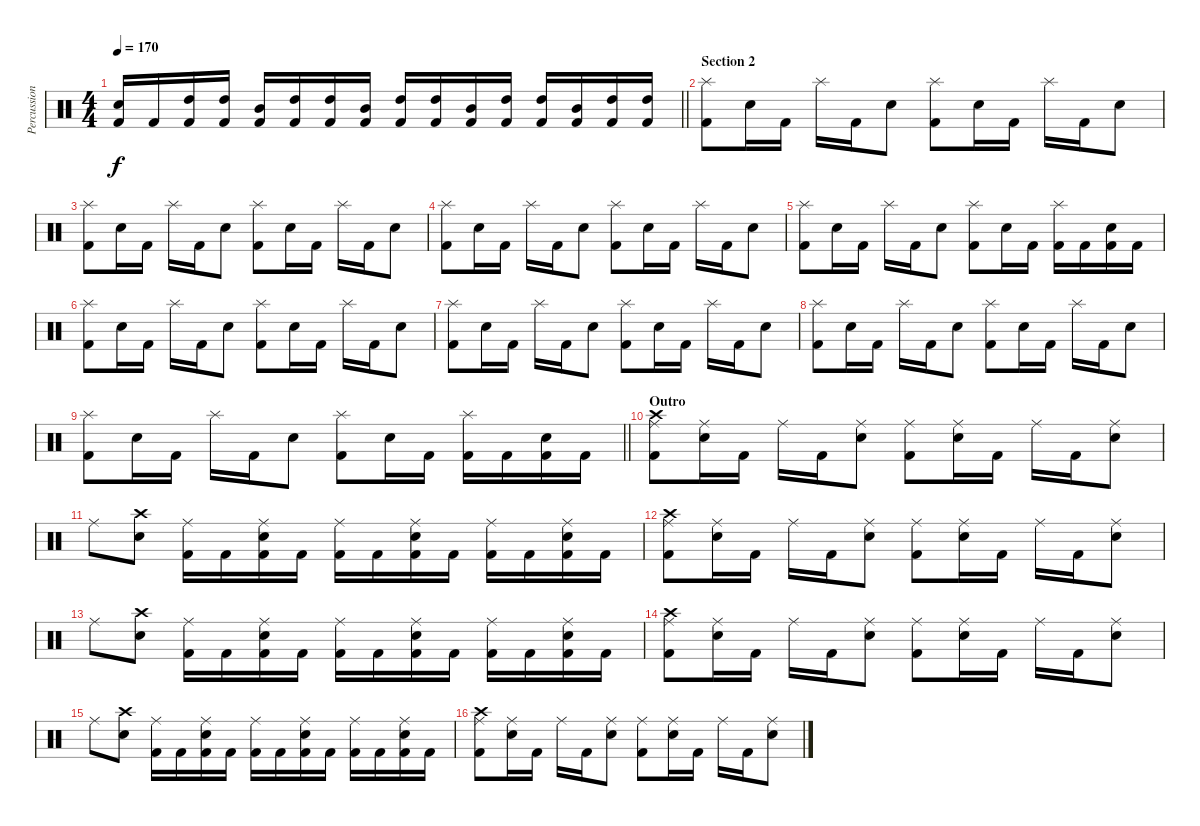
\track ("Percussion" "Percussion") {instrument percussion}
\staff {score}
\articulation defaults
\ts (4 4)
\tempo 170
\clef neutral
\barLineRight lightlight
\ks c
("Snare (hit) 2" "Kick (hit) 2").16{dy f} "Kick (hit) 2".16 ("High Tom (hit)" "Kick (hit) 2").16 ("High Tom (hit)" "Kick (hit) 2").16 ("Mid Tom (hit)" "Kick (hit) 2").16 ("High Tom (hit)" "Kick (hit) 2").16 ("High Tom (hit)" "Kick (hit) 2").16 ("Mid Tom (hit)" "Kick (hit) 2").16 ("High Tom (hit)" "Kick (hit) 2").16 ("High Tom (hit)" "Kick (hit) 2").16 ("Mid Tom (hit)" "Kick (hit) 2").16 ("High Tom (hit)" "Kick (hit) 2").16 ("High Tom (hit)" "Kick (hit) 2").16 ("Mid Tom (hit)" "Kick (hit) 2").16 ("High Tom (hit)" "Kick (hit) 2").16 ("High Tom (hit)" "Kick (hit) 2").16 |
\section ("" "Section 2")
("Splash (hit)" "Kick (hit) 2").8 "Snare (hit) 2".16 "Kick (hit) 2".16 "Splash (hit)".16 "Kick (hit) 2".16 "Snare (hit) 2".8 ("Splash (hit)" "Kick (hit) 2").8 "Snare (hit) 2".16 "Kick (hit) 2".16 "Splash (hit)".16 "Kick (hit) 2".16 "Snare (hit) 2".8 |
("Splash (hit)" "Kick (hit) 2").8 "Snare (hit) 2".16 "Kick (hit) 2".16 "Splash (hit)".16 "Kick (hit) 2".16 "Snare (hit) 2".8 ("Splash (hit)" "Kick (hit) 2").8 "Snare (hit) 2".16 "Kick (hit) 2".16 "Splash (hit)".16 "Kick (hit) 2".16 "Snare (hit) 2".8 |
("Splash (hit)" "Kick (hit) 2").8 "Snare (hit) 2".16 "Kick (hit) 2".16 "Splash (hit)".16 "Kick (hit) 2".16 "Snare (hit) 2".8 ("Splash (hit)" "Kick (hit) 2").8 "Snare (hit) 2".16 "Kick (hit) 2".16 "Splash (hit)".16 "Kick (hit) 2".16 "Snare (hit) 2".8 |
("Splash (hit)" "Kick (hit) 2").8 "Snare (hit) 2".16 "Kick (hit) 2".16 "Splash (hit)".16 "Kick (hit) 2".16 "Snare (hit) 2".8 ("Splash (hit)" "Kick (hit) 2").8 "Snare (hit) 2".16 "Kick (hit) 2".16 ("Splash (hit)" "Kick (hit) 2").16 "Kick (hit) 2".16 ("Snare (hit) 2" "Kick (hit) 2").16 "Kick (hit) 2".16 |
("Splash (hit)" "Kick (hit) 2").8 "Snare (hit) 2".16 "Kick (hit) 2".16 "Splash (hit)".16 "Kick (hit) 2".16 "Snare (hit) 2".8 ("Splash (hit)" "Kick (hit) 2").8 "Snare (hit) 2".16 "Kick (hit) 2".16 "Splash (hit)".16 "Kick (hit) 2".16 "Snare (hit) 2".8 |
("Splash (hit)" "Kick (hit) 2").8 "Snare (hit) 2".16 "Kick (hit) 2".16 "Splash (hit)".16 "Kick (hit) 2".16 "Snare (hit) 2".8 ("Splash (hit)" "Kick (hit) 2").8 "Snare (hit) 2".16 "Kick (hit) 2".16 "Splash (hit)".16 "Kick (hit) 2".16 "Snare (hit) 2".8 |
("Splash (hit)" "Kick (hit) 2").8 "Snare (hit) 2".16 "Kick (hit) 2".16 "Splash (hit)".16 "Kick (hit) 2".16 "Snare (hit) 2".8 ("Splash (hit)" "Kick (hit) 2").8 "Snare (hit) 2".16 "Kick (hit) 2".16 "Splash (hit)".16 "Kick (hit) 2".16 "Snare (hit) 2".8 |
\barLineRight lightlight
("Splash (hit)" "Kick (hit) 2").8 "Snare (hit) 2".16 "Kick (hit) 2".16 "Splash (hit)".16 "Kick (hit) 2".16 "Snare (hit) 2".8 ("Splash (hit)" "Kick (hit) 2").8 "Snare (hit) 2".16 "Kick (hit) 2".16 ("Splash (hit)" "Kick (hit) 2").16 "Kick (hit) 2".16 ("Snare (hit) 2" "Kick (hit) 2").16 "Kick (hit) 2".16 |
\section ("" "Outro")
("Ride (middle)" "Crash high (hit)" "Kick (hit) 2").8 ("Ride (middle)" "Snare (hit) 2").16 "Kick (hit) 2".16 "Ride (middle)".16 "Kick (hit) 2".16 ("Ride (middle)" "Snare (hit) 2").8 ("Ride (middle)" "Kick (hit) 2").8 ("Ride (middle)" "Snare (hit) 2").16 "Kick (hit) 2".16 "Ride (middle)".16 "Kick (hit) 2".16 ("Ride (middle)" "Snare (hit) 2").8 |
"Ride (middle)".8 ("Crash high (hit)" "Snare (hit) 2").8 ("Ride (middle)" "Kick (hit) 2").16 "Kick (hit) 2".16 ("Ride (middle)" "Snare (hit) 2" "Kick (hit) 2").16 "Kick (hit) 2".16 ("Ride (middle)" "Kick (hit) 2").16 "Kick (hit) 2".16 ("Ride (middle)" "Snare (hit) 2" "Kick (hit) 2").16 "Kick (hit) 2".16 ("Ride (middle)" "Kick (hit) 2").16 "Kick (hit) 2".16 ("Ride (middle)" "Snare (hit) 2" "Kick (hit) 2").16 "Kick (hit) 2".16 |
("Ride (middle)" "Crash high (hit)" "Kick (hit) 2").8 ("Ride (middle)" "Snare (hit) 2").16 "Kick (hit) 2".16 "Ride (middle)".16 "Kick (hit) 2".16 ("Ride (middle)" "Snare (hit) 2").8 ("Ride (middle)" "Kick (hit) 2").8 ("Ride (middle)" "Snare (hit) 2").16 "Kick (hit) 2".16 "Ride (middle)".16 "Kick (hit) 2".16 ("Ride (middle)" "Snare (hit) 2").8 |
"Ride (middle)".8 ("Crash high (hit)" "Snare (hit) 2").8 ("Ride (middle)" "Kick (hit) 2").16 "Kick (hit) 2".16 ("Ride (middle)" "Snare (hit) 2" "Kick (hit) 2").16 "Kick (hit) 2".16 ("Ride (middle)" "Kick (hit) 2").16 "Kick (hit) 2".16 ("Ride (middle)" "Snare (hit) 2" "Kick (hit) 2").16 "Kick (hit) 2".16 ("Ride (middle)" "Kick (hit) 2").16 "Kick (hit) 2".16 ("Ride (middle)" "Snare (hit) 2" "Kick (hit) 2").16 "Kick (hit) 2".16 |
("Ride (middle)" "Crash high (hit)" "Kick (hit) 2").8 ("Ride (middle)" "Snare (hit) 2").16 "Kick (hit) 2".16 "Ride (middle)".16 "Kick (hit) 2".16 ("Ride (middle)" "Snare (hit) 2").8 ("Ride (middle)" "Kick (hit) 2").8 ("Ride (middle)" "Snare (hit) 2").16 "Kick (hit) 2".16 "Ride (middle)".16 "Kick (hit) 2".16 ("Ride (middle)" "Snare (hit) 2").8 |
"Ride (middle)".8 ("Crash high (hit)" "Snare (hit) 2").8 ("Ride (middle)" "Kick (hit) 2").16 "Kick (hit) 2".16 ("Ride (middle)" "Snare (hit) 2" "Kick (hit) 2").16 "Kick (hit) 2".16 ("Ride (middle)" "Kick (hit) 2").16 "Kick (hit) 2".16 ("Ride (middle)" "Snare (hit) 2" "Kick (hit) 2").16 "Kick (hit) 2".16 ("Ride (middle)" "Kick (hit) 2").16 "Kick (hit) 2".16 ("Ride (middle)" "Snare (hit) 2" "Kick (hit) 2").16 "Kick (hit) 2".16 |
("Ride (middle)" "Crash high (hit)" "Kick (hit) 2").8 ("Ride (middle)" "Snare (hit) 2").16 "Kick (hit) 2".16 "Ride (middle)".16 "Kick (hit) 2".16 ("Ride (middle)" "Snare (hit) 2").8 ("Ride (middle)" "Kick (hit) 2").8 ("Ride (middle)" "Snare (hit) 2").16 "Kick (hit) 2".16 "Ride (middle)".16 "Kick (hit) 2".16 ("Ride (middle)" "Snare (hit) 2").8
